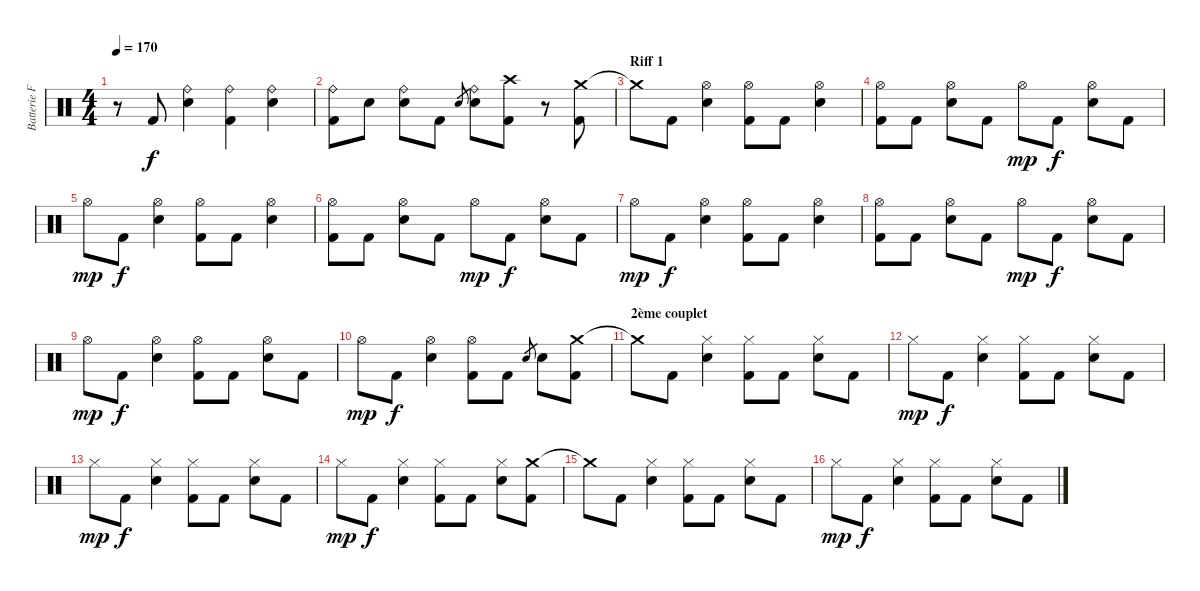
\track ("Batterie Franck" "Batterie F") {instrument percussion}
\staff {score}
\articulation defaults
\ts (4 4)
\tempo 170
\clef neutral
\ks c
r.8{dy f} "Kick (hit) 2".8 ("Ride (bell)" "Snare (hit) 2").4 ("Ride (bell)" "Kick (hit) 2").4 ("Ride (bell)" "Snare (hit) 2").4 |
("Ride (bell)" "Kick (hit) 2").8 "Snare (hit) 2".8 ("Ride (bell)" "Snare (hit) 2").8 "Kick (hit) 2".8 "Snare (hit) 2".8{gr} ("Ride (bell)" "Snare (hit) 2").8 ("Crash high (hit)" "Kick (hit) 2").8 r.8 ("Crash medium (hit)" "Kick (hit) 2").8 |
\section ("" "Riff 1")
"Crash medium (hit)"{t}.8 "Kick (hit) 2".8 ("Hi-Hat (open)" "Snare (hit) 2").4 ("Hi-Hat (open)" "Kick (hit) 2").8 "Kick (hit) 2".8 ("Hi-Hat (open)" "Snare (hit) 2").4 |
("Hi-Hat (open)" "Kick (hit) 2").8 "Kick (hit) 2".8 ("Hi-Hat (open)" "Snare (hit) 2").8 "Kick (hit) 2".8 "Hi-Hat (open)".8{dy mp} "Kick (hit) 2".8{dy f} ("Hi-Hat (open)" "Snare (hit) 2").8 "Kick (hit) 2".8 |
"Hi-Hat (open)".8{dy mp} "Kick (hit) 2".8{dy f} ("Hi-Hat (open)" "Snare (hit) 2").4 ("Hi-Hat (open)" "Kick (hit) 2").8 "Kick (hit) 2".8 ("Hi-Hat (open)" "Snare (hit) 2").4 |
("Hi-Hat (open)" "Kick (hit) 2").8 "Kick (hit) 2".8 ("Hi-Hat (open)" "Snare (hit) 2").8 "Kick (hit) 2".8 "Hi-Hat (open)".8{dy mp} "Kick (hit) 2".8{dy f} ("Hi-Hat (open)" "Snare (hit) 2").8 "Kick (hit) 2".8 |
"Hi-Hat (open)".8{dy mp} "Kick (hit) 2".8{dy f} ("Hi-Hat (open)" "Snare (hit) 2").4 ("Hi-Hat (open)" "Kick (hit) 2").8 "Kick (hit) 2".8 ("Hi-Hat (open)" "Snare (hit) 2").4 |
("Hi-Hat (open)" "Kick (hit) 2").8 "Kick (hit) 2".8 ("Hi-Hat (open)" "Snare (hit) 2").8 "Kick (hit) 2".8 "Hi-Hat (open)".8{dy mp} "Kick (hit) 2".8{dy f} ("Hi-Hat (open)" "Snare (hit) 2").8 "Kick (hit) 2".8 |
"Hi-Hat (open)".8{dy mp} "Kick (hit) 2".8{dy f} ("Hi-Hat (open)" "Snare (hit) 2").4 ("Hi-Hat (open)" "Kick (hit) 2").8 "Kick (hit) 2".8 ("Hi-Hat (open)" "Snare (hit) 2").8 "Kick (hit) 2".8 |
"Hi-Hat (open)".8{dy mp} "Kick (hit) 2".8{dy f} ("Hi-Hat (open)" "Snare (hit) 2").4 ("Hi-Hat (open)" "Kick (hit) 2").8 "Kick (hit) 2".8 "Snare (hit) 2".8{gr} "Snare (hit) 2".8 ("Crash medium (hit)" "Kick (hit) 2").8 |
\section ("" "2ème couplet")
"Crash medium (hit)"{t}.8 "Kick (hit) 2".8 ("Hi-Hat (closed)" "Snare (hit) 2").4 ("Hi-Hat (closed)" "Kick (hit) 2").8 "Kick (hit) 2".8 ("Hi-Hat (closed)" "Snare (hit) 2").8 "Kick (hit) 2".8 |
"Hi-Hat (closed)".8{dy mp} "Kick (hit) 2".8{dy f} ("Hi-Hat (closed)" "Snare (hit) 2").4 ("Hi-Hat (closed)" "Kick (hit) 2").8 "Kick (hit) 2".8 ("Hi-Hat (closed)" "Snare (hit) 2").8 "Kick (hit) 2".8 |
"Hi-Hat (closed)".8{dy mp} "Kick (hit) 2".8{dy f} ("Hi-Hat (closed)" "Snare (hit) 2").4 ("Hi-Hat (closed)" "Kick (hit) 2").8 "Kick (hit) 2".8 ("Hi-Hat (closed)" "Snare (hit) 2").8 "Kick (hit) 2".8 |
"Hi-Hat (closed)".8{dy mp} "Kick (hit) 2".8{dy f} ("Hi-Hat (closed)" "Snare (hit) 2").4 ("Hi-Hat (closed)" "Kick (hit) 2").8 "Kick (hit) 2".8 ("Hi-Hat (closed)" "Snare (hit) 2").8 ("Crash medium (hit)" "Kick (hit) 2").8 |
"Crash medium (hit)"{t}.8 "Kick (hit) 2".8 ("Hi-Hat (closed)" "Snare (hit) 2").4 ("Hi-Hat (closed)" "Kick (hit) 2").8 "Kick (hit) 2".8 ("Hi-Hat (closed)" "Snare (hit) 2").8 "Kick (hit) 2".8 |
"Hi-Hat (closed)".8{dy mp} "Kick (hit) 2".8{dy f} ("Hi-Hat (closed)" "Snare (hit) 2").4 ("Hi-Hat (closed)" "Kick (hit) 2").8 "Kick (hit) 2".8 ("Hi-Hat (closed)" "Snare (hit) 2").8 "Kick (hit) 2".8
